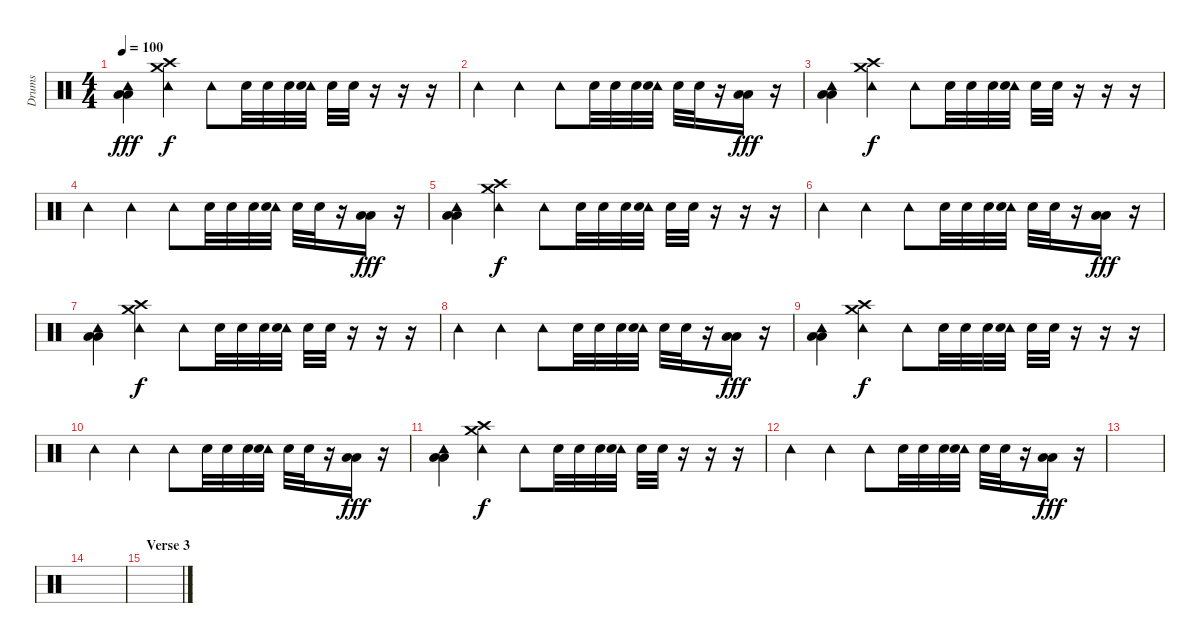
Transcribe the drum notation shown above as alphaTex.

\track ("Drums" "Drums") {instrument percussion}
\staff {score}
\articulation defaults
\ts (4 4)
\tempo 100
\clef neutral
\ks c
("Tambourine (hit)" "Low Floor Tom (hit)" "Low Tom (hit)").4{dy fff} ("Tambourine (hit)" "Crash medium (hit)" "Crash high (hit)").4{dy f} "Tambourine (hit)".8 "Snare (hit) 2".32 "Snare (hit) 2".32 "Snare (hit) 2".32 ("Tambourine (hit)" "Snare (hit) 2").32 "Snare (hit) 2".32 "Snare (hit) 2".32 r.16 r.16 r.16 |
"Tambourine (hit)".4 "Tambourine (hit)".4 "Tambourine (hit)".8 "Snare (hit) 2".32 "Snare (hit) 2".32 "Snare (hit) 2".32 ("Tambourine (hit)" "Snare (hit) 2").32 "Snare (hit) 2".32 "Snare (hit) 2".32 r.16 ("Low Floor Tom (hit)" "Low Tom (hit)").16{dy fff} r.16 |
("Tambourine (hit)" "Low Floor Tom (hit)" "Low Tom (hit)").4 ("Tambourine (hit)" "Crash medium (hit)" "Crash high (hit)").4{dy f} "Tambourine (hit)".8 "Snare (hit) 2".32 "Snare (hit) 2".32 "Snare (hit) 2".32 ("Tambourine (hit)" "Snare (hit) 2").32 "Snare (hit) 2".32 "Snare (hit) 2".32 r.16 r.16 r.16 |
"Tambourine (hit)".4 "Tambourine (hit)".4 "Tambourine (hit)".8 "Snare (hit) 2".32 "Snare (hit) 2".32 "Snare (hit) 2".32 ("Tambourine (hit)" "Snare (hit) 2").32 "Snare (hit) 2".32 "Snare (hit) 2".32 r.16 ("Low Floor Tom (hit)" "Low Tom (hit)").16{dy fff} r.16 |
("Tambourine (hit)" "Low Floor Tom (hit)" "Low Tom (hit)").4 ("Tambourine (hit)" "Crash medium (hit)" "Crash high (hit)").4{dy f} "Tambourine (hit)".8 "Snare (hit) 2".32 "Snare (hit) 2".32 "Snare (hit) 2".32 ("Tambourine (hit)" "Snare (hit) 2").32 "Snare (hit) 2".32 "Snare (hit) 2".32 r.16 r.16 r.16 |
"Tambourine (hit)".4 "Tambourine (hit)".4 "Tambourine (hit)".8 "Snare (hit) 2".32 "Snare (hit) 2".32 "Snare (hit) 2".32 ("Tambourine (hit)" "Snare (hit) 2").32 "Snare (hit) 2".32 "Snare (hit) 2".32 r.16 ("Low Floor Tom (hit)" "Low Tom (hit)").16{dy fff} r.16 |
("Tambourine (hit)" "Low Floor Tom (hit)" "Low Tom (hit)").4 ("Tambourine (hit)" "Crash medium (hit)" "Crash high (hit)").4{dy f} "Tambourine (hit)".8 "Snare (hit) 2".32 "Snare (hit) 2".32 "Snare (hit) 2".32 ("Tambourine (hit)" "Snare (hit) 2").32 "Snare (hit) 2".32 "Snare (hit) 2".32 r.16 r.16 r.16 |
"Tambourine (hit)".4 "Tambourine (hit)".4 "Tambourine (hit)".8 "Snare (hit) 2".32 "Snare (hit) 2".32 "Snare (hit) 2".32 ("Tambourine (hit)" "Snare (hit) 2").32 "Snare (hit) 2".32 "Snare (hit) 2".32 r.16 ("Low Floor Tom (hit)" "Low Tom (hit)").16{dy fff} r.16 |
("Tambourine (hit)" "Low Floor Tom (hit)" "Low Tom (hit)").4 ("Tambourine (hit)" "Crash medium (hit)" "Crash high (hit)").4{dy f} "Tambourine (hit)".8 "Snare (hit) 2".32 "Snare (hit) 2".32 "Snare (hit) 2".32 ("Tambourine (hit)" "Snare (hit) 2").32 "Snare (hit) 2".32 "Snare (hit) 2".32 r.16 r.16 r.16 |
"Tambourine (hit)".4 "Tambourine (hit)".4 "Tambourine (hit)".8 "Snare (hit) 2".32 "Snare (hit) 2".32 "Snare (hit) 2".32 ("Tambourine (hit)" "Snare (hit) 2").32 "Snare (hit) 2".32 "Snare (hit) 2".32 r.16 ("Low Floor Tom (hit)" "Low Tom (hit)").16{dy fff} r.16 |
("Tambourine (hit)" "Low Floor Tom (hit)" "Low Tom (hit)").4 ("Tambourine (hit)" "Crash medium (hit)" "Crash high (hit)").4{dy f} "Tambourine (hit)".8 "Snare (hit) 2".32 "Snare (hit) 2".32 "Snare (hit) 2".32 ("Tambourine (hit)" "Snare (hit) 2").32 "Snare (hit) 2".32 "Snare (hit) 2".32 r.16 r.16 r.16 |
"Tambourine (hit)".4 "Tambourine (hit)".4 "Tambourine (hit)".8 "Snare (hit) 2".32 "Snare (hit) 2".32 "Snare (hit) 2".32 ("Tambourine (hit)" "Snare (hit) 2").32 "Snare (hit) 2".32 "Snare (hit) 2".32 r.16 ("Low Floor Tom (hit)" "Low Tom (hit)").16{dy fff} r.16 |
|
|
\section ("" "Verse 3")
